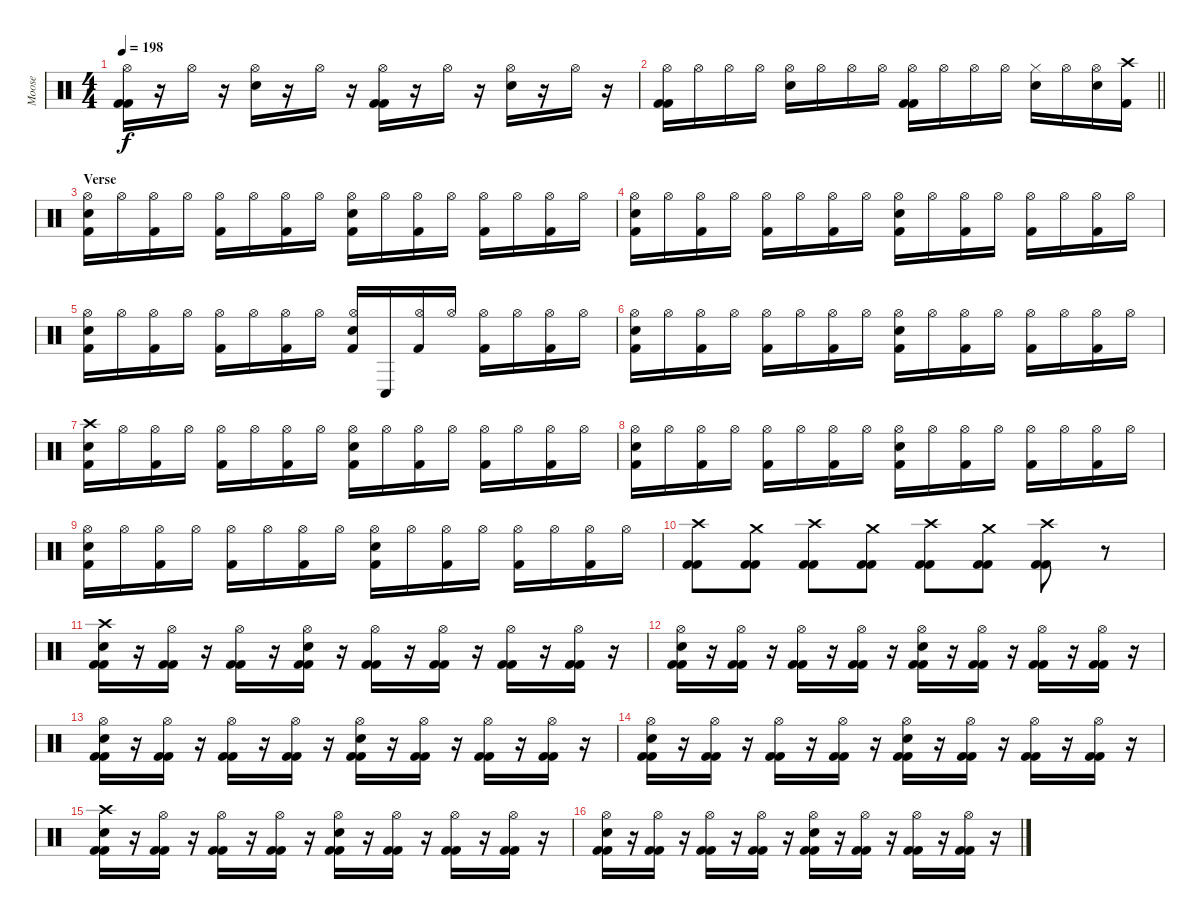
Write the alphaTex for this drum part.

\track ("Moose" "Moose") {instrument percussion}
\staff {score}
\articulation defaults
\ts (4 4)
\tempo 198
\clef neutral
\ks c
("Hi-Hat (open)" "Kick (hit) 2" "Kick (hit) 2").16{dy f} r.16 "Hi-Hat (open)".16 r.16 ("Hi-Hat (open)" "Electric Snare (hit)").16 r.16 "Hi-Hat (open)".16 r.16 ("Hi-Hat (open)" "Kick (hit) 2" "Kick (hit) 2").16 r.16 "Hi-Hat (open)".16 r.16 ("Hi-Hat (open)" "Electric Snare (hit)").16 r.16 "Hi-Hat (open)".16 r.16 |
\barLineRight lightlight
("Hi-Hat (open)" "Kick (hit) 2" "Kick (hit) 2").16 "Hi-Hat (open)".16 "Hi-Hat (open)".16 "Hi-Hat (open)".16 ("Hi-Hat (open)" "Electric Snare (hit)").16 "Hi-Hat (open)".16 "Hi-Hat (open)".16 "Hi-Hat (open)".16 ("Hi-Hat (open)" "Kick (hit) 2" "Kick (hit) 2").16 "Hi-Hat (open)".16 "Hi-Hat (open)".16 "Hi-Hat (open)".16 ("Hi-Hat (closed)" "Electric Snare (hit)").16 "Hi-Hat (open)".16 ("Hi-Hat (open)" "Electric Snare (hit)").16 ("Crash high (hit)" "Kick (hit) 2").16 |
\section ("" "Verse")
("Hi-Hat (open)" "Electric Snare (hit)" "Kick (hit) 2").16 "Hi-Hat (open)".16 ("Hi-Hat (open)" "Kick (hit) 2").16 "Hi-Hat (open)".16 ("Hi-Hat (open)" "Kick (hit) 2").16 "Hi-Hat (open)".16 ("Hi-Hat (open)" "Kick (hit) 2").16 "Hi-Hat (open)".16 ("Hi-Hat (open)" "Electric Snare (hit)" "Kick (hit) 2").16 "Hi-Hat (open)".16 ("Hi-Hat (open)" "Kick (hit) 2").16 "Hi-Hat (open)".16 ("Hi-Hat (open)" "Kick (hit) 2").16 "Hi-Hat (open)".16 ("Hi-Hat (open)" "Kick (hit) 2").16 "Hi-Hat (open)".16 |
("Hi-Hat (open)" "Electric Snare (hit)" "Kick (hit) 2").16 "Hi-Hat (open)".16 ("Hi-Hat (open)" "Kick (hit) 2").16 "Hi-Hat (open)".16 ("Hi-Hat (open)" "Kick (hit) 2").16 "Hi-Hat (open)".16 ("Hi-Hat (open)" "Kick (hit) 2").16 "Hi-Hat (open)".16 ("Hi-Hat (open)" "Electric Snare (hit)" "Kick (hit) 2").16 "Hi-Hat (open)".16 ("Hi-Hat (open)" "Kick (hit) 2").16 "Hi-Hat (open)".16 ("Hi-Hat (open)" "Kick (hit) 2").16 "Hi-Hat (open)".16 ("Hi-Hat (open)" "Kick (hit) 2").16 "Hi-Hat (open)".16 |
("Hi-Hat (open)" "Electric Snare (hit)" "Kick (hit) 2").16 "Hi-Hat (open)".16 ("Hi-Hat (open)" "Kick (hit) 2").16 "Hi-Hat (open)".16 ("Hi-Hat (open)" "Kick (hit) 2").16 "Hi-Hat (open)".16 ("Hi-Hat (open)" "Kick (hit) 2").16 "Hi-Hat (open)".16 ("Hi-Hat (open)" "Electric Snare (hit)" "Kick (hit) 2").16 "Conga low (hit)".16 ("Hi-Hat (open)" "Kick (hit) 2").16 "Hi-Hat (open)".16 ("Hi-Hat (open)" "Kick (hit) 2").16 "Hi-Hat (open)".16 ("Hi-Hat (open)" "Kick (hit) 2").16 "Hi-Hat (open)".16 |
("Hi-Hat (open)" "Electric Snare (hit)" "Kick (hit) 2").16 "Hi-Hat (open)".16 ("Hi-Hat (open)" "Kick (hit) 2").16 "Hi-Hat (open)".16 ("Hi-Hat (open)" "Kick (hit) 2").16 "Hi-Hat (open)".16 ("Hi-Hat (open)" "Kick (hit) 2").16 "Hi-Hat (open)".16 ("Hi-Hat (open)" "Electric Snare (hit)" "Kick (hit) 2").16 "Hi-Hat (open)".16 ("Hi-Hat (open)" "Kick (hit) 2").16 "Hi-Hat (open)".16 ("Hi-Hat (open)" "Kick (hit) 2").16 "Hi-Hat (open)".16 ("Hi-Hat (open)" "Kick (hit) 2").16 "Hi-Hat (open)".16 |
("Crash high (hit)" "Electric Snare (hit)" "Kick (hit) 2").16 "Hi-Hat (open)".16 ("Hi-Hat (open)" "Kick (hit) 2").16 "Hi-Hat (open)".16 ("Hi-Hat (open)" "Kick (hit) 2").16 "Hi-Hat (open)".16 ("Hi-Hat (open)" "Kick (hit) 2").16 "Hi-Hat (open)".16 ("Hi-Hat (open)" "Electric Snare (hit)" "Kick (hit) 2").16 "Hi-Hat (open)".16 ("Hi-Hat (open)" "Kick (hit) 2").16 "Hi-Hat (open)".16 ("Hi-Hat (open)" "Kick (hit) 2").16 "Hi-Hat (open)".16 ("Hi-Hat (open)" "Kick (hit) 2").16 "Hi-Hat (open)".16 |
("Hi-Hat (open)" "Electric Snare (hit)" "Kick (hit) 2").16 "Hi-Hat (open)".16 ("Hi-Hat (open)" "Kick (hit) 2").16 "Hi-Hat (open)".16 ("Hi-Hat (open)" "Kick (hit) 2").16 "Hi-Hat (open)".16 ("Hi-Hat (open)" "Kick (hit) 2").16 "Hi-Hat (open)".16 ("Hi-Hat (open)" "Electric Snare (hit)" "Kick (hit) 2").16 "Hi-Hat (open)".16 ("Hi-Hat (open)" "Kick (hit) 2").16 "Hi-Hat (open)".16 ("Hi-Hat (open)" "Kick (hit) 2").16 "Hi-Hat (open)".16 ("Hi-Hat (open)" "Kick (hit) 2").16 "Hi-Hat (open)".16 |
("Hi-Hat (open)" "Electric Snare (hit)" "Kick (hit) 2").16 "Hi-Hat (open)".16 ("Hi-Hat (open)" "Kick (hit) 2").16 "Hi-Hat (open)".16 ("Hi-Hat (open)" "Kick (hit) 2").16 "Hi-Hat (open)".16 ("Hi-Hat (open)" "Kick (hit) 2").16 "Hi-Hat (open)".16 ("Hi-Hat (open)" "Electric Snare (hit)" "Kick (hit) 2").16 "Hi-Hat (open)".16 ("Hi-Hat (open)" "Kick (hit) 2").16 "Hi-Hat (open)".16 ("Hi-Hat (open)" "Kick (hit) 2").16 "Hi-Hat (open)".16 ("Hi-Hat (open)" "Kick (hit) 2").16 "Hi-Hat (open)".16 |
("Crash high (hit)" "Kick (hit) 2" "Kick (hit) 2").8 ("Crash medium (hit)" "Kick (hit) 2" "Kick (hit) 2").8 ("Crash high (hit)" "Kick (hit) 2" "Kick (hit) 2").8 ("Crash medium (hit)" "Kick (hit) 2" "Kick (hit) 2").8 ("Crash high (hit)" "Kick (hit) 2" "Kick (hit) 2").8 ("Crash medium (hit)" "Kick (hit) 2" "Kick (hit) 2").8 ("Crash high (hit)" "Kick (hit) 2" "Kick (hit) 2").8 r.8 |
("Crash high (hit)" "Electric Snare (hit)" "Kick (hit) 2" "Kick (hit) 2").16 r.16 ("Hi-Hat (open)" "Kick (hit) 2" "Kick (hit) 2").16 r.16 ("Hi-Hat (open)" "Kick (hit) 2" "Kick (hit) 2").16 r.16 ("Hi-Hat (open)" "Electric Snare (hit)" "Kick (hit) 2" "Kick (hit) 2").16 r.16 ("Hi-Hat (open)" "Kick (hit) 2" "Kick (hit) 2").16 r.16 ("Hi-Hat (open)" "Kick (hit) 2" "Kick (hit) 2").16 r.16 ("Hi-Hat (open)" "Kick (hit) 2" "Kick (hit) 2").16 r.16 ("Hi-Hat (open)" "Kick (hit) 2" "Kick (hit) 2").16 r.16 |
("Hi-Hat (open)" "Electric Snare (hit)" "Kick (hit) 2" "Kick (hit) 2").16 r.16 ("Hi-Hat (open)" "Kick (hit) 2" "Kick (hit) 2").16 r.16 ("Hi-Hat (open)" "Kick (hit) 2" "Kick (hit) 2").16 r.16 ("Hi-Hat (open)" "Kick (hit) 2" "Kick (hit) 2").16 r.16 ("Hi-Hat (open)" "Electric Snare (hit)" "Kick (hit) 2" "Kick (hit) 2").16 r.16 ("Hi-Hat (open)" "Kick (hit) 2" "Kick (hit) 2").16 r.16 ("Hi-Hat (open)" "Kick (hit) 2" "Kick (hit) 2").16 r.16 ("Hi-Hat (open)" "Kick (hit) 2" "Kick (hit) 2").16 r.16 |
("Hi-Hat (open)" "Electric Snare (hit)" "Kick (hit) 2" "Kick (hit) 2").16 r.16 ("Hi-Hat (open)" "Kick (hit) 2" "Kick (hit) 2").16 r.16 ("Hi-Hat (open)" "Kick (hit) 2" "Kick (hit) 2").16 r.16 ("Hi-Hat (open)" "Kick (hit) 2" "Kick (hit) 2").16 r.16 ("Hi-Hat (open)" "Electric Snare (hit)" "Kick (hit) 2" "Kick (hit) 2").16 r.16 ("Hi-Hat (open)" "Kick (hit) 2" "Kick (hit) 2").16 r.16 ("Hi-Hat (open)" "Kick (hit) 2" "Kick (hit) 2").16 r.16 ("Hi-Hat (open)" "Kick (hit) 2" "Kick (hit) 2").16 r.16 |
("Hi-Hat (open)" "Electric Snare (hit)" "Kick (hit) 2" "Kick (hit) 2").16 r.16 ("Hi-Hat (open)" "Kick (hit) 2" "Kick (hit) 2").16 r.16 ("Hi-Hat (open)" "Kick (hit) 2" "Kick (hit) 2").16 r.16 ("Hi-Hat (open)" "Kick (hit) 2" "Kick (hit) 2").16 r.16 ("Hi-Hat (open)" "Electric Snare (hit)" "Kick (hit) 2" "Kick (hit) 2").16 r.16 ("Hi-Hat (open)" "Kick (hit) 2" "Kick (hit) 2").16 r.16 ("Hi-Hat (open)" "Kick (hit) 2" "Kick (hit) 2").16 r.16 ("Hi-Hat (open)" "Kick (hit) 2" "Kick (hit) 2").16 r.16 |
("Crash high (hit)" "Electric Snare (hit)" "Kick (hit) 2" "Kick (hit) 2").16 r.16 ("Hi-Hat (open)" "Kick (hit) 2" "Kick (hit) 2").16 r.16 ("Hi-Hat (open)" "Kick (hit) 2" "Kick (hit) 2").16 r.16 ("Hi-Hat (open)" "Kick (hit) 2" "Kick (hit) 2").16 r.16 ("Hi-Hat (open)" "Electric Snare (hit)" "Kick (hit) 2" "Kick (hit) 2").16 r.16 ("Hi-Hat (open)" "Kick (hit) 2" "Kick (hit) 2").16 r.16 ("Hi-Hat (open)" "Kick (hit) 2" "Kick (hit) 2").16 r.16 ("Hi-Hat (open)" "Kick (hit) 2" "Kick (hit) 2").16 r.16 |
("Hi-Hat (open)" "Electric Snare (hit)" "Kick (hit) 2" "Kick (hit) 2").16 r.16 ("Hi-Hat (open)" "Kick (hit) 2" "Kick (hit) 2").16 r.16 ("Hi-Hat (open)" "Kick (hit) 2" "Kick (hit) 2").16 r.16 ("Hi-Hat (open)" "Kick (hit) 2" "Kick (hit) 2").16 r.16 ("Hi-Hat (open)" "Electric Snare (hit)" "Kick (hit) 2" "Kick (hit) 2").16 r.16 ("Hi-Hat (open)" "Kick (hit) 2" "Kick (hit) 2").16 r.16 ("Hi-Hat (open)" "Kick (hit) 2" "Kick (hit) 2").16 r.16 ("Hi-Hat (open)" "Kick (hit) 2" "Kick (hit) 2").16 r.16
